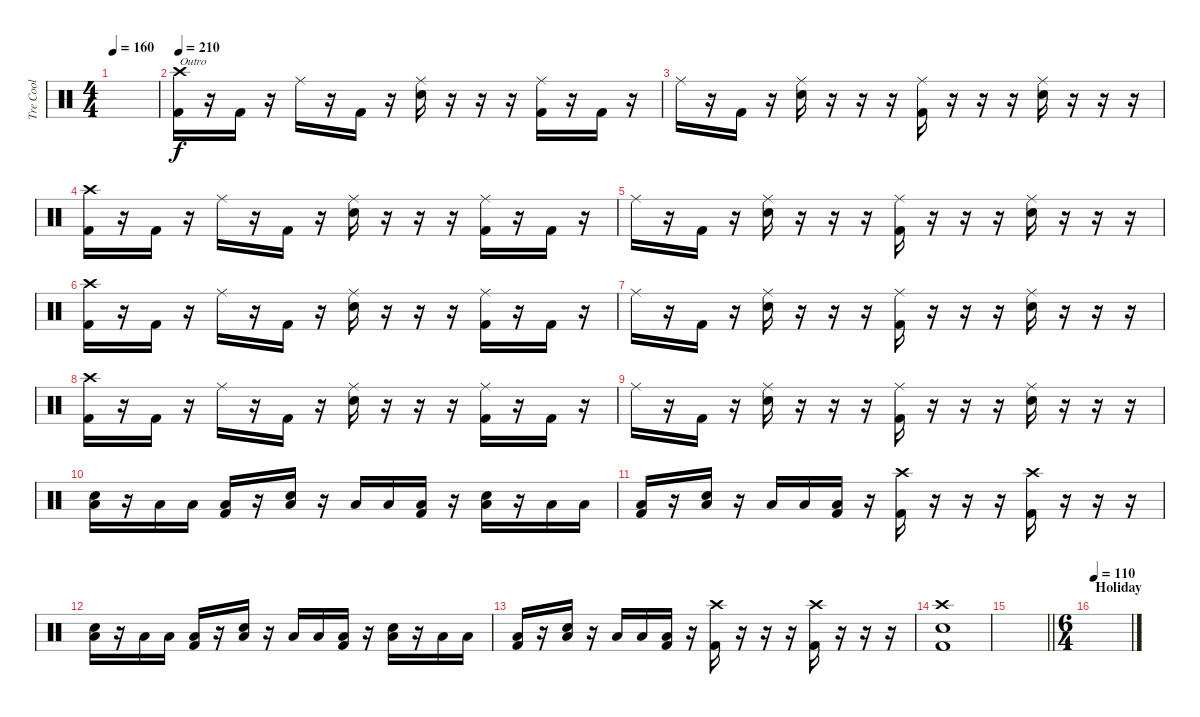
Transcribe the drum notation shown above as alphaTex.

\track ("Tre Cool" "Tre Cool") {instrument percussion}
\staff {score}
\articulation defaults
\ts (4 4)
\tempo 160
\clef neutral
\ks c
|
\tempo 210
("Crash high (hit)" "Kick (hit) 2").16{txt "Outro"} r.16 "Kick (hit) 2".16 r.16 "Ride (middle)".16 r.16 "Kick (hit) 2".16 r.16 ("Ride (middle)" "Snare (hit) 2").16 r.16 r.16 r.16 ("Ride (middle)" "Kick (hit) 2").16 r.16 "Kick (hit) 2".16 r.16 |
"Ride (middle)".16 r.16 "Kick (hit) 2".16 r.16 ("Ride (middle)" "Snare (hit) 2").16 r.16 r.16 r.16 ("Ride (middle)" "Kick (hit) 2").16 r.16 r.16 r.16 ("Ride (middle)" "Snare (hit) 2").16 r.16 r.16 r.16 |
("Crash high (hit)" "Kick (hit) 2").16 r.16 "Kick (hit) 2".16 r.16 "Ride (middle)".16 r.16 "Kick (hit) 2".16 r.16 ("Ride (middle)" "Snare (hit) 2").16 r.16 r.16 r.16 ("Ride (middle)" "Kick (hit) 2").16 r.16 "Kick (hit) 2".16 r.16 |
"Ride (middle)".16 r.16 "Kick (hit) 2".16 r.16 ("Ride (middle)" "Snare (hit) 2").16 r.16 r.16 r.16 ("Ride (middle)" "Kick (hit) 2").16 r.16 r.16 r.16 ("Ride (middle)" "Snare (hit) 2").16 r.16 r.16 r.16 |
("Crash high (hit)" "Kick (hit) 2").16 r.16 "Kick (hit) 2".16 r.16 "Ride (middle)".16 r.16 "Kick (hit) 2".16 r.16 ("Ride (middle)" "Snare (hit) 2").16 r.16 r.16 r.16 ("Ride (middle)" "Kick (hit) 2").16 r.16 "Kick (hit) 2".16 r.16 |
"Ride (middle)".16 r.16 "Kick (hit) 2".16 r.16 ("Ride (middle)" "Snare (hit) 2").16 r.16 r.16 r.16 ("Ride (middle)" "Kick (hit) 2").16 r.16 r.16 r.16 ("Ride (middle)" "Snare (hit) 2").16 r.16 r.16 r.16 |
("Crash high (hit)" "Kick (hit) 2").16 r.16 "Kick (hit) 2".16 r.16 "Ride (middle)".16 r.16 "Kick (hit) 2".16 r.16 ("Ride (middle)" "Snare (hit) 2").16 r.16 r.16 r.16 ("Ride (middle)" "Kick (hit) 2").16 r.16 "Kick (hit) 2".16 r.16 |
"Ride (middle)".16 r.16 "Kick (hit) 2".16 r.16 ("Ride (middle)" "Snare (hit) 2").16 r.16 r.16 r.16 ("Ride (middle)" "Kick (hit) 2").16 r.16 r.16 r.16 ("Ride (middle)" "Snare (hit) 2").16 r.16 r.16 r.16 |
("Low Floor Tom (hit)" "Snare (hit) 2").16 r.16 "Low Floor Tom (hit)".16 "Low Floor Tom (hit)".16 ("Low Floor Tom (hit)" "Kick (hit) 2").16 r.16 ("Low Floor Tom (hit)" "Snare (hit) 2").16 r.16 "Low Floor Tom (hit)".16 "Low Floor Tom (hit)".16 ("Low Floor Tom (hit)" "Kick (hit) 2").16 r.16 ("Low Floor Tom (hit)" "Snare (hit) 2").16 r.16 "Low Floor Tom (hit)".16 "Low Floor Tom (hit)".16 |
("Low Floor Tom (hit)" "Kick (hit) 2").16 r.16 ("Low Floor Tom (hit)" "Snare (hit) 2").16 r.16 "Low Floor Tom (hit)".16 "Low Floor Tom (hit)".16 ("Low Floor Tom (hit)" "Kick (hit) 2").16 r.16 ("Crash high (hit)" "Kick (hit) 2").16 r.16 r.16 r.16 ("Crash high (hit)" "Kick (hit) 2").16 r.16 r.16 r.16 |
("Low Floor Tom (hit)" "Snare (hit) 2").16 r.16 "Low Floor Tom (hit)".16 "Low Floor Tom (hit)".16 ("Low Floor Tom (hit)" "Kick (hit) 2").16 r.16 ("Low Floor Tom (hit)" "Snare (hit) 2").16 r.16 "Low Floor Tom (hit)".16 "Low Floor Tom (hit)".16 ("Low Floor Tom (hit)" "Kick (hit) 2").16 r.16 ("Low Floor Tom (hit)" "Snare (hit) 2").16 r.16 "Low Floor Tom (hit)".16 "Low Floor Tom (hit)".16 |
("Low Floor Tom (hit)" "Kick (hit) 2").16 r.16 ("Low Floor Tom (hit)" "Snare (hit) 2").16 r.16 "Low Floor Tom (hit)".16 "Low Floor Tom (hit)".16 ("Low Floor Tom (hit)" "Kick (hit) 2").16 r.16 ("Crash high (hit)" "Kick (hit) 2").16 r.16 r.16 r.16 ("Crash high (hit)" "Kick (hit) 2").16 r.16 r.16 r.16 |
("Crash high (hit)" "Snare (hit) 2" "Kick (hit) 2").1 |
\barLineRight lightlight
|
\ts (6 4)
\section ("" "Holiday")
\tempo 110
